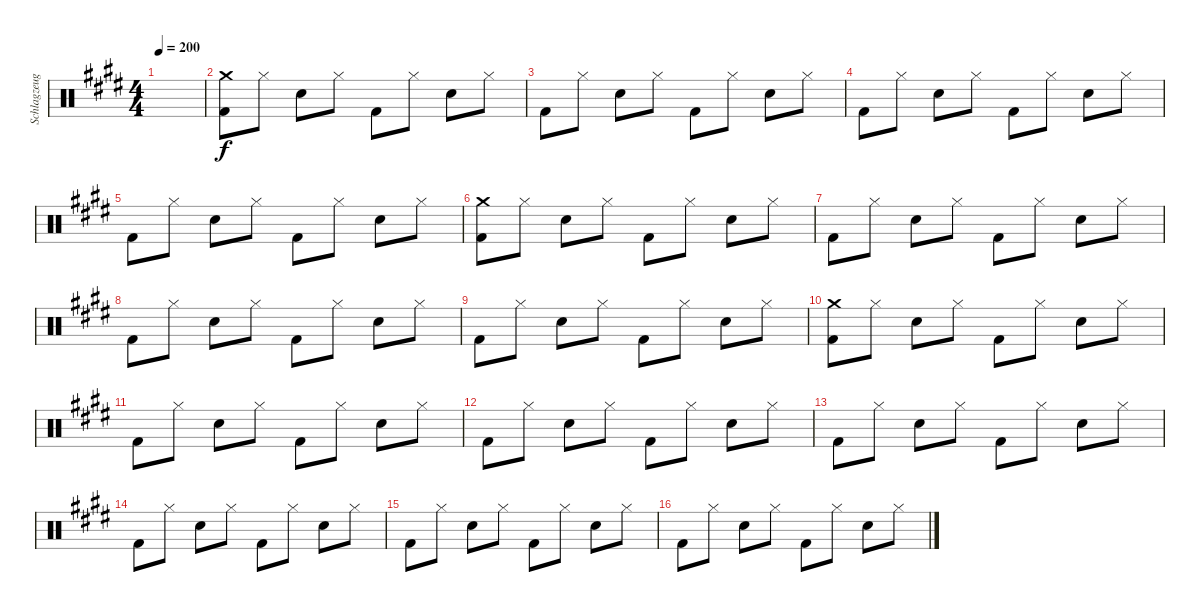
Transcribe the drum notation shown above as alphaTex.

\track ("Schlagzeug" "Schlagzeug") {instrument percussion}
\staff {score}
\articulation defaults
\ts (4 4)
\tempo 200
\clef neutral
\ks e
|
("Crash medium (hit)" "Kick (hit) 2").8 "Hi-Hat (closed)".8 "Snare (hit) 2".8 "Hi-Hat (closed)".8 "Kick (hit) 2".8 "Hi-Hat (closed)".8 "Snare (hit) 2".8 "Hi-Hat (closed)".8 |
"Kick (hit) 2".8 "Hi-Hat (closed)".8 "Snare (hit) 2".8 "Hi-Hat (closed)".8 "Kick (hit) 2".8 "Hi-Hat (closed)".8 "Snare (hit) 2".8 "Hi-Hat (closed)".8 |
"Kick (hit) 2".8 "Hi-Hat (closed)".8 "Snare (hit) 2".8 "Hi-Hat (closed)".8 "Kick (hit) 2".8 "Hi-Hat (closed)".8 "Snare (hit) 2".8 "Hi-Hat (closed)".8 |
"Kick (hit) 2".8 "Hi-Hat (closed)".8 "Snare (hit) 2".8 "Hi-Hat (closed)".8 "Kick (hit) 2".8 "Hi-Hat (closed)".8 "Snare (hit) 2".8 "Hi-Hat (closed)".8 |
("Crash medium (hit)" "Kick (hit) 2").8 "Hi-Hat (closed)".8 "Snare (hit) 2".8 "Hi-Hat (closed)".8 "Kick (hit) 2".8 "Hi-Hat (closed)".8 "Snare (hit) 2".8 "Hi-Hat (closed)".8 |
"Kick (hit) 2".8 "Hi-Hat (closed)".8 "Snare (hit) 2".8 "Hi-Hat (closed)".8 "Kick (hit) 2".8 "Hi-Hat (closed)".8 "Snare (hit) 2".8 "Hi-Hat (closed)".8 |
"Kick (hit) 2".8 "Hi-Hat (closed)".8 "Snare (hit) 2".8 "Hi-Hat (closed)".8 "Kick (hit) 2".8 "Hi-Hat (closed)".8 "Snare (hit) 2".8 "Hi-Hat (closed)".8 |
"Kick (hit) 2".8 "Hi-Hat (closed)".8 "Snare (hit) 2".8 "Hi-Hat (closed)".8 "Kick (hit) 2".8 "Hi-Hat (closed)".8 "Snare (hit) 2".8 "Hi-Hat (closed)".8 |
("Crash medium (hit)" "Kick (hit) 2").8 "Hi-Hat (closed)".8 "Snare (hit) 2".8 "Hi-Hat (closed)".8 "Kick (hit) 2".8 "Hi-Hat (closed)".8 "Snare (hit) 2".8 "Hi-Hat (closed)".8 |
"Kick (hit) 2".8 "Hi-Hat (closed)".8 "Snare (hit) 2".8 "Hi-Hat (closed)".8 "Kick (hit) 2".8 "Hi-Hat (closed)".8 "Snare (hit) 2".8 "Hi-Hat (closed)".8 |
"Kick (hit) 2".8 "Hi-Hat (closed)".8 "Snare (hit) 2".8 "Hi-Hat (closed)".8 "Kick (hit) 2".8 "Hi-Hat (closed)".8 "Snare (hit) 2".8 "Hi-Hat (closed)".8 |
"Kick (hit) 2".8 "Hi-Hat (closed)".8 "Snare (hit) 2".8 "Hi-Hat (closed)".8 "Kick (hit) 2".8 "Hi-Hat (closed)".8 "Snare (hit) 2".8 "Hi-Hat (closed)".8 |
"Kick (hit) 2".8 "Hi-Hat (closed)".8 "Snare (hit) 2".8 "Hi-Hat (closed)".8 "Kick (hit) 2".8 "Hi-Hat (closed)".8 "Snare (hit) 2".8 "Hi-Hat (closed)".8 |
"Kick (hit) 2".8 "Hi-Hat (closed)".8 "Snare (hit) 2".8 "Hi-Hat (closed)".8 "Kick (hit) 2".8 "Hi-Hat (closed)".8 "Snare (hit) 2".8 "Hi-Hat (closed)".8 |
"Kick (hit) 2".8 "Hi-Hat (closed)".8 "Snare (hit) 2".8 "Hi-Hat (closed)".8 "Kick (hit) 2".8 "Hi-Hat (closed)".8 "Snare (hit) 2".8 "Hi-Hat (closed)".8
